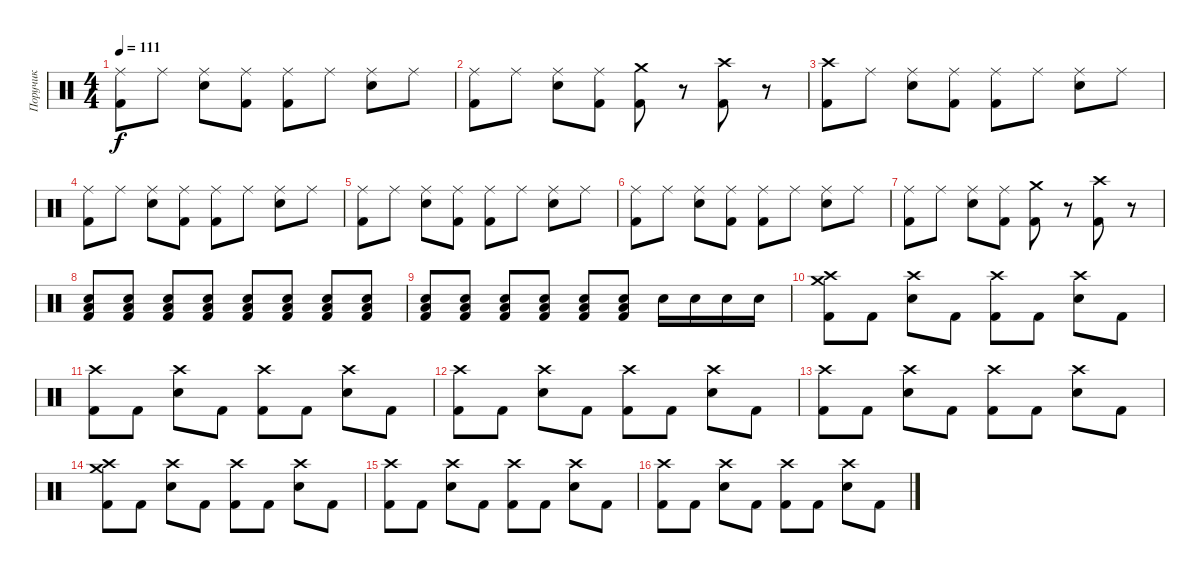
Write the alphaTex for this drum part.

\track ("Поручик" "Поручик") {instrument percussion}
\staff {score}
\articulation defaults
\ts (4 4)
\tempo 111
\clef neutral
\ks c
("Ride (middle)" "Kick (hit) 2").8{dy f} "Ride (middle)".8 ("Ride (middle)" "Electric Snare (hit)").8 ("Ride (middle)" "Kick (hit) 2").8 ("Ride (middle)" "Kick (hit) 2").8 "Ride (middle)".8 ("Ride (middle)" "Electric Snare (hit)").8 "Ride (middle)".8 |
("Ride (middle)" "Kick (hit) 2").8 "Ride (middle)".8 ("Ride (middle)" "Electric Snare (hit)").8 ("Ride (middle)" "Kick (hit) 2").8 ("Crash medium (hit)" "Kick (hit) 2").8 r.8 ("Crash high (hit)" "Kick (hit) 2").8 r.8 |
("Crash high (hit)" "Kick (hit) 2").8 "Ride (middle)".8 ("Ride (middle)" "Electric Snare (hit)").8 ("Ride (middle)" "Kick (hit) 2").8 ("Ride (middle)" "Kick (hit) 2").8 "Ride (middle)".8 ("Ride (middle)" "Electric Snare (hit)").8 "Ride (middle)".8 |
("Ride (middle)" "Kick (hit) 2").8 "Ride (middle)".8 ("Ride (middle)" "Electric Snare (hit)").8 ("Ride (middle)" "Kick (hit) 2").8 ("Ride (middle)" "Kick (hit) 2").8 "Ride (middle)".8 ("Ride (middle)" "Electric Snare (hit)").8 "Ride (middle)".8 |
("Ride (middle)" "Kick (hit) 2").8 "Ride (middle)".8 ("Ride (middle)" "Electric Snare (hit)").8 ("Ride (middle)" "Kick (hit) 2").8 ("Ride (middle)" "Kick (hit) 2").8 "Ride (middle)".8 ("Ride (middle)" "Electric Snare (hit)").8 "Ride (middle)".8 |
("Ride (middle)" "Kick (hit) 2").8 "Ride (middle)".8 ("Ride (middle)" "Electric Snare (hit)").8 ("Ride (middle)" "Kick (hit) 2").8 ("Ride (middle)" "Kick (hit) 2").8 "Ride (middle)".8 ("Ride (middle)" "Electric Snare (hit)").8 "Ride (middle)".8 |
("Ride (middle)" "Kick (hit) 2").8 "Ride (middle)".8 ("Ride (middle)" "Electric Snare (hit)").8 ("Ride (middle)" "Kick (hit) 2").8 ("Crash medium (hit)" "Kick (hit) 2").8 r.8 ("Crash high (hit)" "Kick (hit) 2").8 r.8 |
("Low Tom (hit)" "Electric Snare (hit)" "Kick (hit) 2").8 ("Low Tom (hit)" "Electric Snare (hit)" "Kick (hit) 2").8 ("Low Tom (hit)" "Electric Snare (hit)" "Kick (hit) 2").8 ("Low Tom (hit)" "Electric Snare (hit)" "Kick (hit) 2").8 ("Low Tom (hit)" "Electric Snare (hit)" "Kick (hit) 2").8 ("Low Tom (hit)" "Electric Snare (hit)" "Kick (hit) 2").8 ("Low Tom (hit)" "Electric Snare (hit)" "Kick (hit) 2").8 ("Low Tom (hit)" "Electric Snare (hit)" "Kick (hit) 2").8 |
("Low Tom (hit)" "Electric Snare (hit)" "Kick (hit) 2").8 ("Low Tom (hit)" "Electric Snare (hit)" "Kick (hit) 2").8 ("Low Tom (hit)" "Electric Snare (hit)" "Kick (hit) 2").8 ("Low Tom (hit)" "Electric Snare (hit)" "Kick (hit) 2").8 ("Low Tom (hit)" "Electric Snare (hit)" "Kick (hit) 2").8 ("Low Tom (hit)" "Electric Snare (hit)" "Kick (hit) 2").8 "Electric Snare (hit)".16 "Electric Snare (hit)".16 "Electric Snare (hit)".16 "Electric Snare (hit)".16 |
("Crash medium (hit)" "Crash high (hit)" "Kick (hit) 2").8 "Kick (hit) 2".8 ("Crash high (hit)" "Electric Snare (hit)").8 "Kick (hit) 2".8 ("Crash high (hit)" "Kick (hit) 2").8 "Kick (hit) 2".8 ("Crash high (hit)" "Electric Snare (hit)").8 "Kick (hit) 2".8 |
("Crash high (hit)" "Kick (hit) 2").8 "Kick (hit) 2".8 ("Crash high (hit)" "Electric Snare (hit)").8 "Kick (hit) 2".8 ("Crash high (hit)" "Kick (hit) 2").8 "Kick (hit) 2".8 ("Crash high (hit)" "Electric Snare (hit)").8 "Kick (hit) 2".8 |
("Crash high (hit)" "Kick (hit) 2").8 "Kick (hit) 2".8 ("Crash high (hit)" "Electric Snare (hit)").8 "Kick (hit) 2".8 ("Crash high (hit)" "Kick (hit) 2").8 "Kick (hit) 2".8 ("Crash high (hit)" "Electric Snare (hit)").8 "Kick (hit) 2".8 |
("Crash high (hit)" "Kick (hit) 2").8 "Kick (hit) 2".8 ("Crash high (hit)" "Electric Snare (hit)").8 "Kick (hit) 2".8 ("Crash high (hit)" "Kick (hit) 2").8 "Kick (hit) 2".8 ("Crash high (hit)" "Electric Snare (hit)").8 "Kick (hit) 2".8 |
("Crash medium (hit)" "Crash high (hit)" "Kick (hit) 2").8 "Kick (hit) 2".8 ("Crash high (hit)" "Electric Snare (hit)").8 "Kick (hit) 2".8 ("Crash high (hit)" "Kick (hit) 2").8 "Kick (hit) 2".8 ("Crash high (hit)" "Electric Snare (hit)").8 "Kick (hit) 2".8 |
("Crash high (hit)" "Kick (hit) 2").8 "Kick (hit) 2".8 ("Crash high (hit)" "Electric Snare (hit)").8 "Kick (hit) 2".8 ("Crash high (hit)" "Kick (hit) 2").8 "Kick (hit) 2".8 ("Crash high (hit)" "Electric Snare (hit)").8 "Kick (hit) 2".8 |
("Crash high (hit)" "Kick (hit) 2").8 "Kick (hit) 2".8 ("Crash high (hit)" "Electric Snare (hit)").8 "Kick (hit) 2".8 ("Crash high (hit)" "Kick (hit) 2").8 "Kick (hit) 2".8 ("Crash high (hit)" "Electric Snare (hit)").8 "Kick (hit) 2".8
